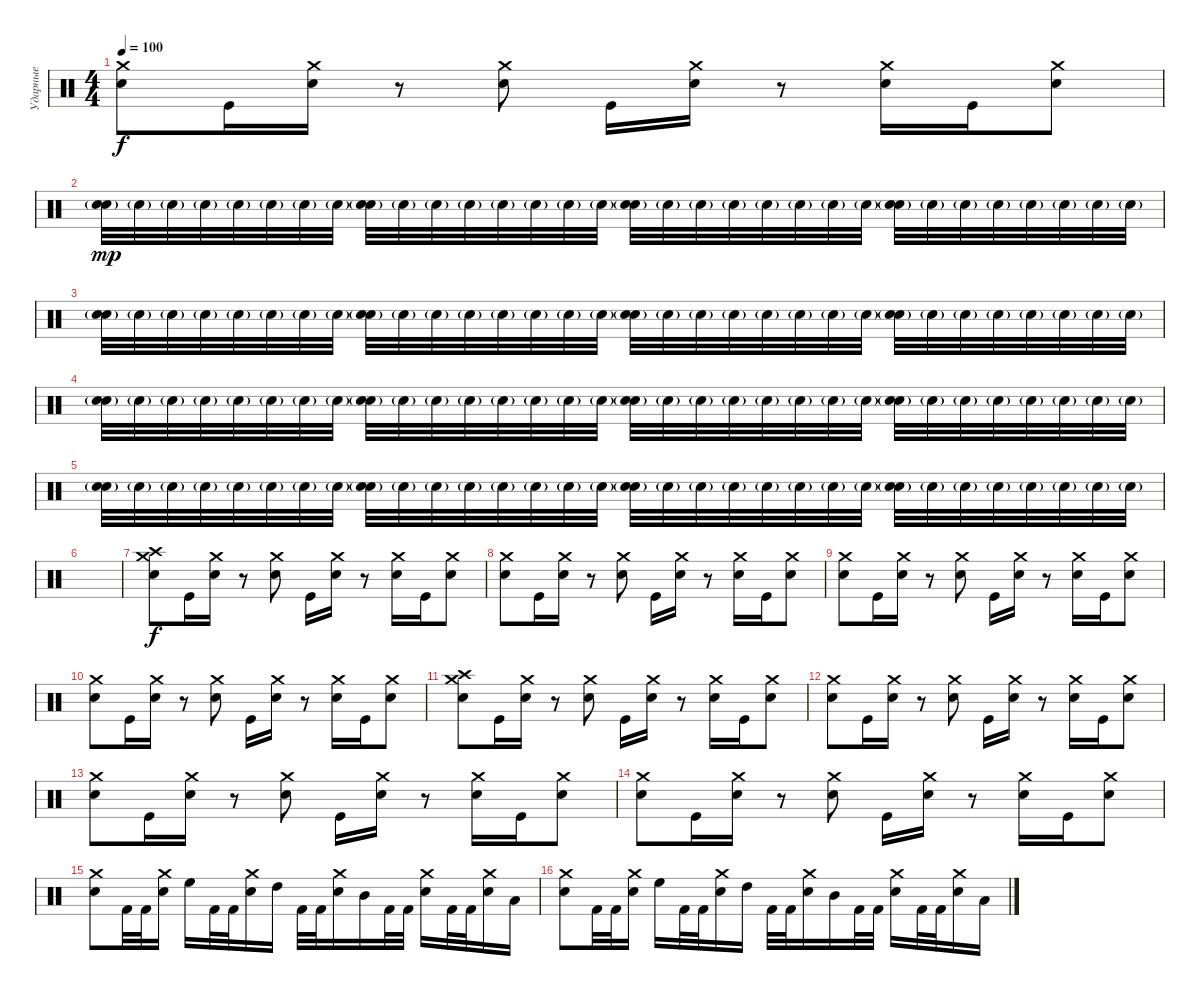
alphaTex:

\track ("Ударные" "Ударные") {instrument percussion}
\staff {score}
\articulation defaults
\ts (4 4)
\tempo 100
\clef neutral
\ks c
("Crash medium (hit)" "Electric Snare (hit)").8{dy f} "Kick (hit)".16 ("Crash medium (hit)" "Electric Snare (hit)").16 r.8 ("Crash medium (hit)" "Electric Snare (hit)").8 "Kick (hit)".16 ("Crash medium (hit)" "Electric Snare (hit)").16 r.8 ("Crash medium (hit)" "Electric Snare (hit)").16 "Kick (hit)".16 ("Crash medium (hit)" "Electric Snare (hit)").8 |
("Electric Snare (hit)"{g} "Snare (hit) 2").32{dy mp volume 0} "Electric Snare (hit)"{g}.32{volume 13} "Electric Snare (hit)"{g}.32 "Electric Snare (hit)"{g}.32 "Electric Snare (hit)"{g}.32 "Electric Snare (hit)"{g}.32 "Electric Snare (hit)"{g}.32 "Electric Snare (hit)"{g}.32 ("Electric Snare (hit)"{g} "Snare (hit) 2").32 "Electric Snare (hit)"{g}.32 "Electric Snare (hit)"{g}.32 "Electric Snare (hit)"{g}.32 "Electric Snare (hit)"{g}.32 "Electric Snare (hit)"{g}.32 "Electric Snare (hit)"{g}.32 "Electric Snare (hit)"{g}.32 ("Electric Snare (hit)"{g} "Snare (hit) 2").32 "Electric Snare (hit)"{g}.32 "Electric Snare (hit)"{g}.32 "Electric Snare (hit)"{g}.32 "Electric Snare (hit)"{g}.32 "Electric Snare (hit)"{g}.32 "Electric Snare (hit)"{g}.32 "Electric Snare (hit)"{g}.32 ("Electric Snare (hit)"{g} "Snare (hit) 2").32 "Electric Snare (hit)"{g}.32 "Electric Snare (hit)"{g}.32 "Electric Snare (hit)"{g}.32 "Electric Snare (hit)"{g}.32 "Electric Snare (hit)"{g}.32 "Electric Snare (hit)"{g}.32 "Electric Snare (hit)"{g}.32 |
("Electric Snare (hit)"{g} "Snare (hit) 2").32 "Electric Snare (hit)"{g}.32 "Electric Snare (hit)"{g}.32 "Electric Snare (hit)"{g}.32 "Electric Snare (hit)"{g}.32 "Electric Snare (hit)"{g}.32 "Electric Snare (hit)"{g}.32 "Electric Snare (hit)"{g}.32 ("Electric Snare (hit)"{g} "Snare (hit) 2").32 "Electric Snare (hit)"{g}.32 "Electric Snare (hit)"{g}.32 "Electric Snare (hit)"{g}.32 "Electric Snare (hit)"{g}.32 "Electric Snare (hit)"{g}.32 "Electric Snare (hit)"{g}.32 "Electric Snare (hit)"{g}.32 ("Electric Snare (hit)"{g} "Snare (hit) 2").32 "Electric Snare (hit)"{g}.32 "Electric Snare (hit)"{g}.32 "Electric Snare (hit)"{g}.32 "Electric Snare (hit)"{g}.32 "Electric Snare (hit)"{g}.32 "Electric Snare (hit)"{g}.32 "Electric Snare (hit)"{g}.32 ("Electric Snare (hit)"{g} "Snare (hit) 2").32 "Electric Snare (hit)"{g}.32 "Electric Snare (hit)"{g}.32 "Electric Snare (hit)"{g}.32 "Electric Snare (hit)"{g}.32 "Electric Snare (hit)"{g}.32 "Electric Snare (hit)"{g}.32 "Electric Snare (hit)"{g}.32 |
("Electric Snare (hit)"{g} "Snare (hit) 2").32 "Electric Snare (hit)"{g}.32 "Electric Snare (hit)"{g}.32 "Electric Snare (hit)"{g}.32 "Electric Snare (hit)"{g}.32 "Electric Snare (hit)"{g}.32 "Electric Snare (hit)"{g}.32 "Electric Snare (hit)"{g}.32 ("Electric Snare (hit)"{g} "Snare (hit) 2").32 "Electric Snare (hit)"{g}.32 "Electric Snare (hit)"{g}.32 "Electric Snare (hit)"{g}.32 "Electric Snare (hit)"{g}.32 "Electric Snare (hit)"{g}.32 "Electric Snare (hit)"{g}.32 "Electric Snare (hit)"{g}.32 ("Electric Snare (hit)"{g} "Snare (hit) 2").32 "Electric Snare (hit)"{g}.32 "Electric Snare (hit)"{g}.32 "Electric Snare (hit)"{g}.32 "Electric Snare (hit)"{g}.32 "Electric Snare (hit)"{g}.32 "Electric Snare (hit)"{g}.32 "Electric Snare (hit)"{g}.32 ("Electric Snare (hit)"{g} "Snare (hit) 2").32 "Electric Snare (hit)"{g}.32 "Electric Snare (hit)"{g}.32 "Electric Snare (hit)"{g}.32 "Electric Snare (hit)"{g}.32 "Electric Snare (hit)"{g}.32 "Electric Snare (hit)"{g}.32 "Electric Snare (hit)"{g}.32 |
("Electric Snare (hit)"{g} "Snare (hit) 2").32 "Electric Snare (hit)"{g}.32 "Electric Snare (hit)"{g}.32 "Electric Snare (hit)"{g}.32 "Electric Snare (hit)"{g}.32 "Electric Snare (hit)"{g}.32 "Electric Snare (hit)"{g}.32 "Electric Snare (hit)"{g}.32 ("Electric Snare (hit)"{g} "Snare (hit) 2").32 "Electric Snare (hit)"{g}.32 "Electric Snare (hit)"{g}.32 "Electric Snare (hit)"{g}.32 "Electric Snare (hit)"{g}.32 "Electric Snare (hit)"{g}.32 "Electric Snare (hit)"{g}.32 "Electric Snare (hit)"{g}.32 ("Electric Snare (hit)"{g} "Snare (hit) 2").32 "Electric Snare (hit)"{g}.32 "Electric Snare (hit)"{g}.32 "Electric Snare (hit)"{g}.32 "Electric Snare (hit)"{g}.32 "Electric Snare (hit)"{g}.32 "Electric Snare (hit)"{g}.32 "Electric Snare (hit)"{g}.32 ("Electric Snare (hit)"{g} "Snare (hit) 2").32 "Electric Snare (hit)"{g}.32 "Electric Snare (hit)"{g}.32 "Electric Snare (hit)"{g}.32 "Electric Snare (hit)"{g}.32 "Electric Snare (hit)"{g}.32 "Electric Snare (hit)"{g}.32 "Electric Snare (hit)"{g}.32 |
|
("Crash high (hit)" "Crash medium (hit)" "Electric Snare (hit)").8{dy f} "Kick (hit)".16 ("Crash medium (hit)" "Electric Snare (hit)").16 r.8 ("Crash medium (hit)" "Electric Snare (hit)").8 "Kick (hit)".16 ("Crash medium (hit)" "Electric Snare (hit)").16 r.8 ("Crash medium (hit)" "Electric Snare (hit)").16 "Kick (hit)".16 ("Crash medium (hit)" "Electric Snare (hit)").8 |
("Crash medium (hit)" "Electric Snare (hit)").8 "Kick (hit)".16 ("Crash medium (hit)" "Electric Snare (hit)").16 r.8 ("Crash medium (hit)" "Electric Snare (hit)").8 "Kick (hit)".16 ("Crash medium (hit)" "Electric Snare (hit)").16 r.8 ("Crash medium (hit)" "Electric Snare (hit)").16 "Kick (hit)".16 ("Crash medium (hit)" "Electric Snare (hit)").8 |
("Crash medium (hit)" "Electric Snare (hit)").8 "Kick (hit)".16 ("Crash medium (hit)" "Electric Snare (hit)").16 r.8 ("Crash medium (hit)" "Electric Snare (hit)").8 "Kick (hit)".16 ("Crash medium (hit)" "Electric Snare (hit)").16 r.8 ("Crash medium (hit)" "Electric Snare (hit)").16 "Kick (hit)".16 ("Crash medium (hit)" "Electric Snare (hit)").8 |
("Crash medium (hit)" "Electric Snare (hit)").8 "Kick (hit)".16 ("Crash medium (hit)" "Electric Snare (hit)").16 r.8 ("Crash medium (hit)" "Electric Snare (hit)").8 "Kick (hit)".16 ("Crash medium (hit)" "Electric Snare (hit)").16 r.8 ("Crash medium (hit)" "Electric Snare (hit)").16 "Kick (hit)".16 ("Crash medium (hit)" "Electric Snare (hit)").8 |
("Crash high (hit)" "Crash medium (hit)" "Electric Snare (hit)").8 "Kick (hit)".16 ("Crash medium (hit)" "Electric Snare (hit)").16 r.8 ("Crash medium (hit)" "Electric Snare (hit)").8 "Kick (hit)".16 ("Crash medium (hit)" "Electric Snare (hit)").16 r.8 ("Crash medium (hit)" "Electric Snare (hit)").16 "Kick (hit)".16 ("Crash medium (hit)" "Electric Snare (hit)").8 |
("Crash medium (hit)" "Electric Snare (hit)").8 "Kick (hit)".16 ("Crash medium (hit)" "Electric Snare (hit)").16 r.8 ("Crash medium (hit)" "Electric Snare (hit)").8 "Kick (hit)".16 ("Crash medium (hit)" "Electric Snare (hit)").16 r.8 ("Crash medium (hit)" "Electric Snare (hit)").16 "Kick (hit)".16 ("Crash medium (hit)" "Electric Snare (hit)").8 |
("Crash medium (hit)" "Electric Snare (hit)").8 "Kick (hit)".16 ("Crash medium (hit)" "Electric Snare (hit)").16 r.8 ("Crash medium (hit)" "Electric Snare (hit)").8 "Kick (hit)".16 ("Crash medium (hit)" "Electric Snare (hit)").16 r.8 ("Crash medium (hit)" "Electric Snare (hit)").16 "Kick (hit)".16 ("Crash medium (hit)" "Electric Snare (hit)").8 |
("Crash medium (hit)" "Electric Snare (hit)").8 "Kick (hit)".16 ("Crash medium (hit)" "Electric Snare (hit)").16 r.8 ("Crash medium (hit)" "Electric Snare (hit)").8 "Kick (hit)".16 ("Crash medium (hit)" "Electric Snare (hit)").16 r.8 ("Crash medium (hit)" "Electric Snare (hit)").16 "Kick (hit)".16 ("Crash medium (hit)" "Electric Snare (hit)").8 |
("Crash medium (hit)" "Electric Snare (hit)").8 "Kick (hit) 2".32 "Kick (hit) 2".32 ("Crash medium (hit)" "Electric Snare (hit)").16 "High Floor Tom (hit)".16 "Kick (hit) 2".32 "Kick (hit) 2".32 ("Crash medium (hit)" "Electric Snare (hit)").16 "High Tom (hit)".16 "Kick (hit) 2".32 "Kick (hit) 2".32 ("Crash medium (hit)" "Electric Snare (hit)").16 "Mid Tom (hit)".16 "Kick (hit) 2".32 "Kick (hit) 2".32 ("Crash medium (hit)" "Electric Snare (hit)").16 "Kick (hit) 2".32 "Kick (hit) 2".32 ("Crash medium (hit)" "Electric Snare (hit)").16 "Low Tom (hit)".16 |
("Crash medium (hit)" "Electric Snare (hit)").8 "Kick (hit) 2".32 "Kick (hit) 2".32 ("Crash medium (hit)" "Electric Snare (hit)").16 "High Floor Tom (hit)".16 "Kick (hit) 2".32 "Kick (hit) 2".32 ("Crash medium (hit)" "Electric Snare (hit)").16 "High Tom (hit)".16 "Kick (hit) 2".32 "Kick (hit) 2".32 ("Crash medium (hit)" "Electric Snare (hit)").16 "Mid Tom (hit)".16 "Kick (hit) 2".32 "Kick (hit) 2".32 ("Crash medium (hit)" "Electric Snare (hit)").16 "Kick (hit) 2".32 "Kick (hit) 2".32 ("Crash medium (hit)" "Electric Snare (hit)").16 "Low Tom (hit)".16
